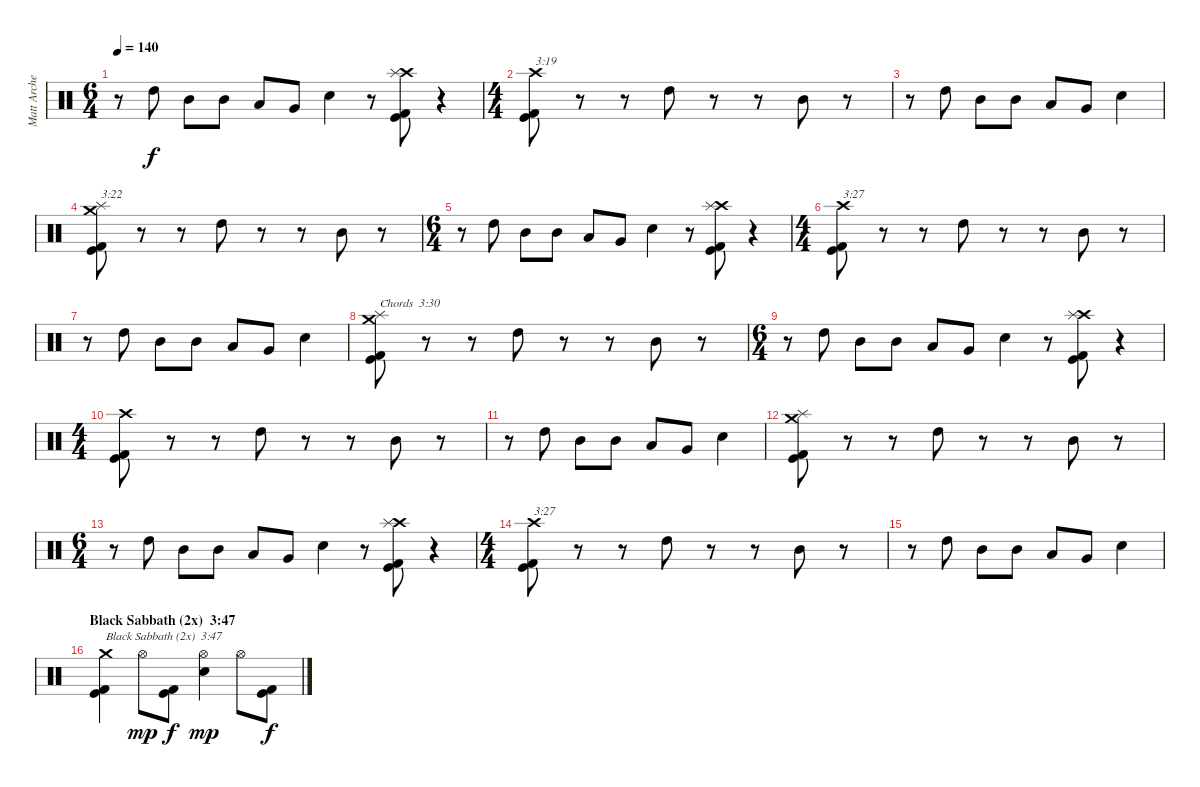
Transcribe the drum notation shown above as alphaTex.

\track ("Matt Archer" "Matt Arche") {instrument percussion}
\staff {score}
\articulation defaults
\ts (6 4)
\tempo 140
\clef neutral
\ks c
r.8{dy f} "High Tom (hit)".8 "Mid Tom (hit)".8 "Mid Tom (hit)".8 "Low Tom (hit)".8 "Very Low Tom (hit)".8 "Electric Snare (hit)".4 r.8 ("Kick (hit)" "Kick (hit) 2" "Crash high (hit)" "Splash (hit)").8 r.4 |
\ts (4 4)
("Kick (hit)" "Kick (hit) 2" "Crash high (hit)").8{txt "3:19"} r.8 r.8 "High Tom (hit)".8 r.8 r.8 "Mid Tom (hit)".8 r.8 |
r.8 "High Tom (hit)".8 "Mid Tom (hit)".8 "Mid Tom (hit)".8 "Low Tom (hit)".8 "Very Low Tom (hit)".8 "Electric Snare (hit)".4 |
("Kick (hit)" "Kick (hit) 2" "Crash medium (hit)" "Splash (hit)").8{txt "3:22"} r.8 r.8 "High Tom (hit)".8 r.8 r.8 "Mid Tom (hit)".8 r.8 |
\ts (6 4)
r.8 "High Tom (hit)".8 "Mid Tom (hit)".8 "Mid Tom (hit)".8 "Low Tom (hit)".8 "Very Low Tom (hit)".8 "Electric Snare (hit)".4 r.8 ("Kick (hit)" "Kick (hit) 2" "Crash high (hit)" "Splash (hit)").8 r.4 |
\ts (4 4)
("Kick (hit)" "Kick (hit) 2" "Crash high (hit)").8{txt "3:27"} r.8 r.8 "High Tom (hit)".8 r.8 r.8 "Mid Tom (hit)".8 r.8 |
r.8 "High Tom (hit)".8 "Mid Tom (hit)".8 "Mid Tom (hit)".8 "Low Tom (hit)".8 "Very Low Tom (hit)".8 "Electric Snare (hit)".4 |
("Kick (hit)" "Kick (hit) 2" "Crash medium (hit)" "Splash (hit)").8{txt "Chords  3:30"} r.8 r.8 "High Tom (hit)".8 r.8 r.8 "Mid Tom (hit)".8 r.8 |
\ts (6 4)
r.8 "High Tom (hit)".8 "Mid Tom (hit)".8 "Mid Tom (hit)".8 "Low Tom (hit)".8 "Very Low Tom (hit)".8 "Electric Snare (hit)".4 r.8 ("Kick (hit)" "Kick (hit) 2" "Crash high (hit)" "Splash (hit)").8 r.4 |
\ts (4 4)
("Kick (hit)" "Kick (hit) 2" "Crash high (hit)").8 r.8 r.8 "High Tom (hit)".8 r.8 r.8 "Mid Tom (hit)".8 r.8 |
r.8 "High Tom (hit)".8 "Mid Tom (hit)".8 "Mid Tom (hit)".8 "Low Tom (hit)".8 "Very Low Tom (hit)".8 "Electric Snare (hit)".4 |
("Kick (hit)" "Kick (hit) 2" "Crash medium (hit)" "Splash (hit)").8 r.8 r.8 "High Tom (hit)".8 r.8 r.8 "Mid Tom (hit)".8 r.8 |
\ts (6 4)
r.8 "High Tom (hit)".8 "Mid Tom (hit)".8 "Mid Tom (hit)".8 "Low Tom (hit)".8 "Very Low Tom (hit)".8 "Electric Snare (hit)".4 r.8 ("Kick (hit)" "Kick (hit) 2" "Crash high (hit)" "Splash (hit)").8 r.4 |
\ts (4 4)
("Kick (hit)" "Kick (hit) 2" "Crash high (hit)").8{txt "3:27"} r.8 r.8 "High Tom (hit)".8 r.8 r.8 "Mid Tom (hit)".8 r.8 |
r.8 "High Tom (hit)".8 "Mid Tom (hit)".8 "Mid Tom (hit)".8 "Low Tom (hit)".8 "Very Low Tom (hit)".8 "Electric Snare (hit)".4 |
\section ("" "Black Sabbath (2x)  3:47")
("Kick (hit)" "Kick (hit) 2" "Crash medium (hit)").4{txt "Black Sabbath (2x)  3:47"} "Hi-Hat (open)".8{dy mp} ("Kick (hit)" "Kick (hit) 2").8{dy f} ("Electric Snare (hit)" "Hi-Hat (open)").4{dy mp} "Hi-Hat (open)".8 ("Kick (hit)" "Kick (hit) 2").8{dy f}
